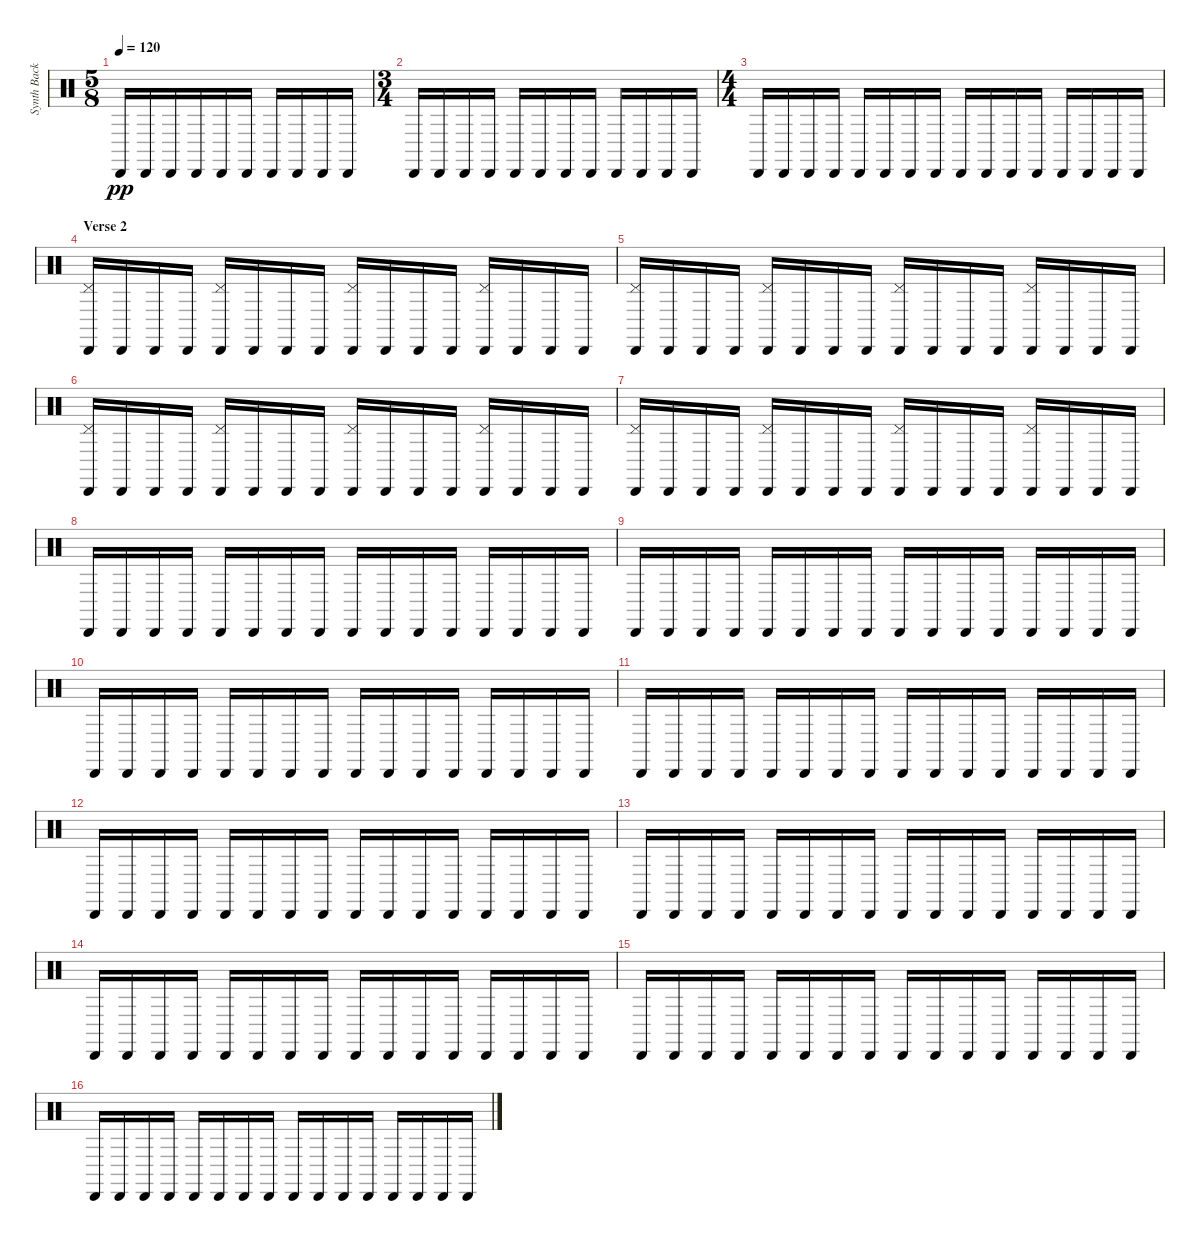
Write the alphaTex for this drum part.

\track ("Synth Background Rhythm" "Synth Back") {instrument percussion}
\staff {score}
\articulation defaults
\ts (5 8)
\tempo 120
\clef neutral
\ks c "Cabasa (hit)".16{dy pp} "Cabasa (hit)".16 "Cabasa (hit)".16 "Cabasa (hit)".16 "Cabasa (hit)".16 "Cabasa (hit)".16 "Cabasa (hit)".16 "Cabasa (hit)".16 "Cabasa (hit)".16 "Cabasa (hit)".16
|
\ts (3 4)
"Cabasa (hit)".16 "Cabasa (hit)".16 "Cabasa (hit)".16 "Cabasa (hit)".16 "Cabasa (hit)".16 "Cabasa (hit)".16 "Cabasa (hit)".16 "Cabasa (hit)".16 "Cabasa (hit)".16 "Cabasa (hit)".16 "Cabasa (hit)".16 "Cabasa (hit)".16 |
\ts (4 4)
"Cabasa (hit)".16 "Cabasa (hit)".16 "Cabasa (hit)".16 "Cabasa (hit)".16 "Cabasa (hit)".16 "Cabasa (hit)".16 "Cabasa (hit)".16 "Cabasa (hit)".16 "Cabasa (hit)".16 "Cabasa (hit)".16 "Cabasa (hit)".16 "Cabasa (hit)".16 "Cabasa (hit)".16 "Cabasa (hit)".16 "Cabasa (hit)".16 "Cabasa (hit)".16 |
\section ("" "Verse 2")
("Pedal Hi-Hat (hit)" "Cabasa (hit)").16 "Cabasa (hit)".16 "Cabasa (hit)".16 "Cabasa (hit)".16 ("Pedal Hi-Hat (hit)" "Cabasa (hit)").16 "Cabasa (hit)".16 "Cabasa (hit)".16 "Cabasa (hit)".16 ("Pedal Hi-Hat (hit)" "Cabasa (hit)").16 "Cabasa (hit)".16 "Cabasa (hit)".16 "Cabasa (hit)".16 ("Pedal Hi-Hat (hit)" "Cabasa (hit)").16 "Cabasa (hit)".16 "Cabasa (hit)".16 "Cabasa (hit)".16 |
("Pedal Hi-Hat (hit)" "Cabasa (hit)").16 "Cabasa (hit)".16 "Cabasa (hit)".16 "Cabasa (hit)".16 ("Pedal Hi-Hat (hit)" "Cabasa (hit)").16 "Cabasa (hit)".16 "Cabasa (hit)".16 "Cabasa (hit)".16 ("Pedal Hi-Hat (hit)" "Cabasa (hit)").16 "Cabasa (hit)".16 "Cabasa (hit)".16 "Cabasa (hit)".16 ("Pedal Hi-Hat (hit)" "Cabasa (hit)").16 "Cabasa (hit)".16 "Cabasa (hit)".16 "Cabasa (hit)".16 |
("Pedal Hi-Hat (hit)" "Cabasa (hit)").16 "Cabasa (hit)".16 "Cabasa (hit)".16 "Cabasa (hit)".16 ("Pedal Hi-Hat (hit)" "Cabasa (hit)").16 "Cabasa (hit)".16 "Cabasa (hit)".16 "Cabasa (hit)".16 ("Pedal Hi-Hat (hit)" "Cabasa (hit)").16 "Cabasa (hit)".16 "Cabasa (hit)".16 "Cabasa (hit)".16 ("Pedal Hi-Hat (hit)" "Cabasa (hit)").16 "Cabasa (hit)".16 "Cabasa (hit)".16 "Cabasa (hit)".16 |
("Pedal Hi-Hat (hit)" "Cabasa (hit)").16 "Cabasa (hit)".16 "Cabasa (hit)".16 "Cabasa (hit)".16 ("Pedal Hi-Hat (hit)" "Cabasa (hit)").16 "Cabasa (hit)".16 "Cabasa (hit)".16 "Cabasa (hit)".16 ("Pedal Hi-Hat (hit)" "Cabasa (hit)").16 "Cabasa (hit)".16 "Cabasa (hit)".16 "Cabasa (hit)".16 ("Pedal Hi-Hat (hit)" "Cabasa (hit)").16 "Cabasa (hit)".16 "Cabasa (hit)".16 "Cabasa (hit)".16 |
"Cabasa (hit)".16 "Cabasa (hit)".16 "Cabasa (hit)".16 "Cabasa (hit)".16 "Cabasa (hit)".16 "Cabasa (hit)".16 "Cabasa (hit)".16 "Cabasa (hit)".16 "Cabasa (hit)".16 "Cabasa (hit)".16 "Cabasa (hit)".16 "Cabasa (hit)".16 "Cabasa (hit)".16 "Cabasa (hit)".16 "Cabasa (hit)".16 "Cabasa (hit)".16 |
"Cabasa (hit)".16 "Cabasa (hit)".16 "Cabasa (hit)".16 "Cabasa (hit)".16 "Cabasa (hit)".16 "Cabasa (hit)".16 "Cabasa (hit)".16 "Cabasa (hit)".16 "Cabasa (hit)".16 "Cabasa (hit)".16 "Cabasa (hit)".16 "Cabasa (hit)".16 "Cabasa (hit)".16 "Cabasa (hit)".16 "Cabasa (hit)".16 "Cabasa (hit)".16 |
"Cabasa (hit)".16 "Cabasa (hit)".16 "Cabasa (hit)".16 "Cabasa (hit)".16 "Cabasa (hit)".16 "Cabasa (hit)".16 "Cabasa (hit)".16 "Cabasa (hit)".16 "Cabasa (hit)".16 "Cabasa (hit)".16 "Cabasa (hit)".16 "Cabasa (hit)".16 "Cabasa (hit)".16 "Cabasa (hit)".16 "Cabasa (hit)".16 "Cabasa (hit)".16 |
"Cabasa (hit)".16 "Cabasa (hit)".16 "Cabasa (hit)".16 "Cabasa (hit)".16 "Cabasa (hit)".16 "Cabasa (hit)".16 "Cabasa (hit)".16 "Cabasa (hit)".16 "Cabasa (hit)".16 "Cabasa (hit)".16 "Cabasa (hit)".16 "Cabasa (hit)".16 "Cabasa (hit)".16 "Cabasa (hit)".16 "Cabasa (hit)".16 "Cabasa (hit)".16 |
"Cabasa (hit)".16 "Cabasa (hit)".16 "Cabasa (hit)".16 "Cabasa (hit)".16 "Cabasa (hit)".16 "Cabasa (hit)".16 "Cabasa (hit)".16 "Cabasa (hit)".16 "Cabasa (hit)".16 "Cabasa (hit)".16 "Cabasa (hit)".16 "Cabasa (hit)".16 "Cabasa (hit)".16 "Cabasa (hit)".16 "Cabasa (hit)".16 "Cabasa (hit)".16 |
"Cabasa (hit)".16 "Cabasa (hit)".16 "Cabasa (hit)".16 "Cabasa (hit)".16 "Cabasa (hit)".16 "Cabasa (hit)".16 "Cabasa (hit)".16 "Cabasa (hit)".16 "Cabasa (hit)".16 "Cabasa (hit)".16 "Cabasa (hit)".16 "Cabasa (hit)".16 "Cabasa (hit)".16 "Cabasa (hit)".16 "Cabasa (hit)".16 "Cabasa (hit)".16 |
"Cabasa (hit)".16 "Cabasa (hit)".16 "Cabasa (hit)".16 "Cabasa (hit)".16 "Cabasa (hit)".16 "Cabasa (hit)".16 "Cabasa (hit)".16 "Cabasa (hit)".16 "Cabasa (hit)".16 "Cabasa (hit)".16 "Cabasa (hit)".16 "Cabasa (hit)".16 "Cabasa (hit)".16 "Cabasa (hit)".16 "Cabasa (hit)".16 "Cabasa (hit)".16 |
"Cabasa (hit)".16 "Cabasa (hit)".16 "Cabasa (hit)".16 "Cabasa (hit)".16 "Cabasa (hit)".16 "Cabasa (hit)".16 "Cabasa (hit)".16 "Cabasa (hit)".16 "Cabasa (hit)".16 "Cabasa (hit)".16 "Cabasa (hit)".16 "Cabasa (hit)".16 "Cabasa (hit)".16 "Cabasa (hit)".16 "Cabasa (hit)".16 "Cabasa (hit)".16 |
"Cabasa (hit)".16 "Cabasa (hit)".16 "Cabasa (hit)".16 "Cabasa (hit)".16 "Cabasa (hit)".16 "Cabasa (hit)".16 "Cabasa (hit)".16 "Cabasa (hit)".16 "Cabasa (hit)".16 "Cabasa (hit)".16 "Cabasa (hit)".16 "Cabasa (hit)".16 "Cabasa (hit)".16 "Cabasa (hit)".16 "Cabasa (hit)".16 "Cabasa (hit)".16
